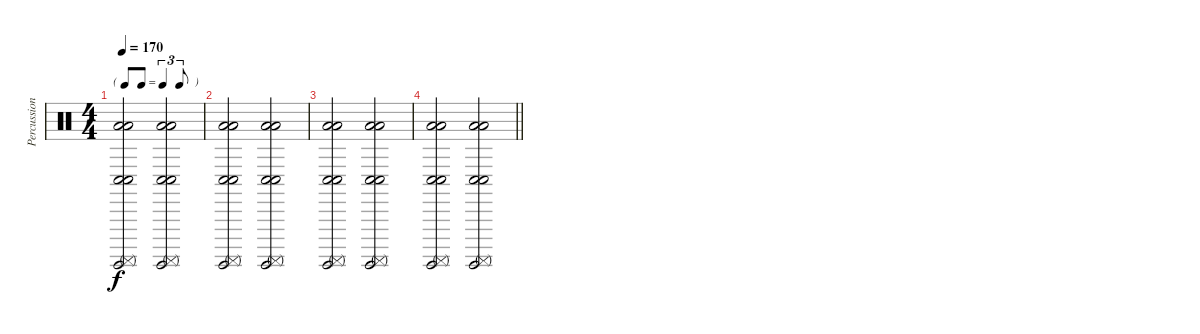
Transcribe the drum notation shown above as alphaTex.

\track ("Percussions" "Percussion") {instrument percussion}
\staff {score}
\articulation defaults
\ts (4 4)
\tf triplet8th
\tempo 170
\clef neutral
\ks c
("Conga low (hit)" "Conga low (hit)" "Low Floor Tom (hit)" "Surdo (hit)" "Surdo (mute)" "Low Floor Tom (hit)").2{dy f} ("Conga low (hit)" "Conga low (hit)" "Low Floor Tom (hit)" "Surdo (hit)" "Surdo (mute)" "Low Floor Tom (hit)").2 |
("Conga low (hit)" "Conga low (hit)" "Low Floor Tom (hit)" "Surdo (hit)" "Surdo (mute)" "Low Floor Tom (hit)").2 ("Conga low (hit)" "Conga low (hit)" "Low Floor Tom (hit)" "Surdo (hit)" "Surdo (mute)" "Low Floor Tom (hit)").2 |
("Conga low (hit)" "Conga low (hit)" "Low Floor Tom (hit)" "Surdo (hit)" "Surdo (mute)" "Low Floor Tom (hit)").2 ("Conga low (hit)" "Conga low (hit)" "Low Floor Tom (hit)" "Surdo (hit)" "Surdo (mute)" "Low Floor Tom (hit)").2 |
\barLineRight lightlight
("Conga low (hit)" "Conga low (hit)" "Low Floor Tom (hit)" "Surdo (hit)" "Surdo (mute)" "Low Floor Tom (hit)").2 ("Conga low (hit)" "Conga low (hit)" "Low Floor Tom (hit)" "Surdo (hit)" "Surdo (mute)" "Low Floor Tom (hit)").2
